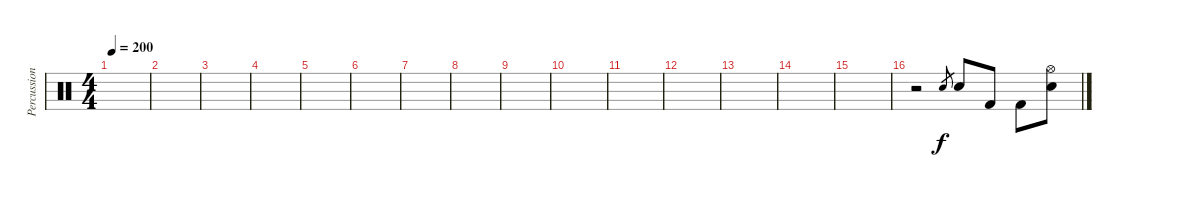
\track ("Percussion" "Percussion") {instrument percussion}
\staff {score}
\articulation defaults
\ts (4 4)
\tempo 200
\clef neutral
\ks c
|
|
|
|
|
|
|
|
|
|
|
|
|
|
|
r.2 "Electric Snare (hit)".8{gr} "Electric Snare (hit)".8 "Kick (hit) 2".8 "Kick (hit) 2".8 ("Hi-Hat (open)" "Electric Snare (hit)").8
